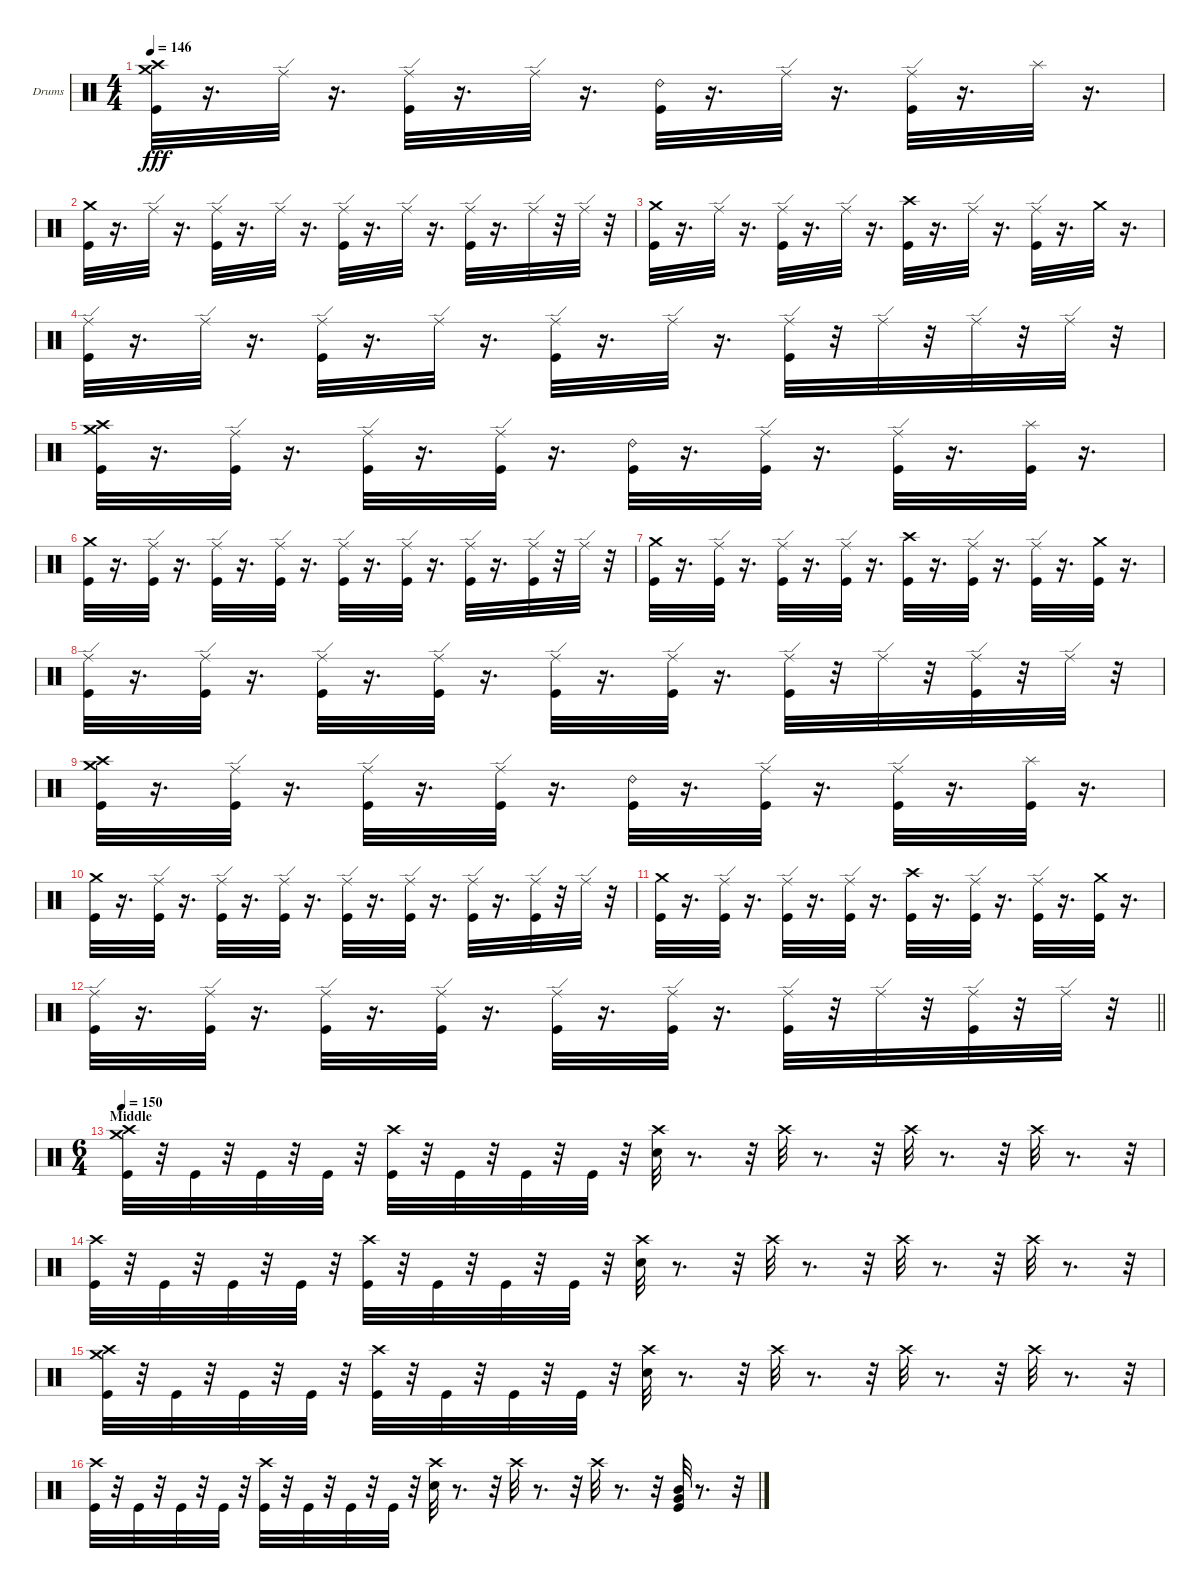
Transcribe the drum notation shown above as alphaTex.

\bracketExtendMode groupsimilarinstruments
\firstSystemTrackNameOrientation horizontal
\otherSystemsTrackNameOrientation horizontal
\track ("Dave McClain" "Drums") {mute instrument percussion}
\staff {score}
\articulation defaults
\ts (4 4)
\tempo 146
\clef neutral
\ks c
("Crash high (hit)" "Crash medium (hit)" "Kick (hit)").32{dy fff} r.16{d} "Ride (edge)".32 r.16{d} ("Kick (hit)" "Ride (edge)").32 r.16{d} "Ride (edge)".32 r.16{d} ("Ride (bell) 2" "Kick (hit)").32 r.16{d} "Ride (edge)".32 r.16{d} ("Kick (hit)" "Ride (edge)").32 r.16{d} "Splash (hit)".32 r.16{d} |
("Crash medium (hit)" "Kick (hit)").32 r.16{d} "Ride (edge)".32 r.16{d} ("Kick (hit)" "Ride (edge)").32 r.16{d} "Ride (edge)".32 r.16{d} ("Kick (hit)" "Ride (edge)").32 r.16{d} "Ride (edge)".32 r.16{d} ("Kick (hit)" "Ride (edge)").32 r.16{d} "Ride (edge)".32 r.32 "Ride (edge)".32 r.32 |
("Crash medium (hit)" "Kick (hit)").32 r.16{d} "Ride (edge)".32 r.16{d} ("Kick (hit)" "Ride (edge)").32 r.16{d} "Ride (edge)".32 r.16{d} ("Crash high (hit)" "Kick (hit)").32 r.16{d} "Ride (edge)".32 r.16{d} ("Kick (hit)" "Ride (edge)").32 r.16{d} "Crash medium (hit)".32 r.16{d} |
("Ride (edge)" "Kick (hit)").32 r.16{d} "Ride (edge)".32 r.16{d} ("Kick (hit)" "Ride (edge)").32 r.16{d} "Ride (edge)".32 r.16{d} ("Kick (hit)" "Ride (edge)").32 r.16{d} "Ride (edge)".32 r.16{d} ("Kick (hit)" "Ride (edge)").32 r.32 "Ride (edge)".32 r.32 "Ride (edge)".32 r.32 "Ride (edge)".32 r.32 |
("Crash high (hit)" "Crash medium (hit)" "Kick (hit)").32 r.16{d} ("Kick (hit)" "Ride (edge)").32 r.16{d} ("Kick (hit)" "Ride (edge)").32 r.16{d} ("Kick (hit)" "Ride (edge)").32 r.16{d} ("Ride (bell) 2" "Kick (hit)").32 r.16{d} ("Kick (hit)" "Ride (edge)").32 r.16{d} ("Kick (hit)" "Ride (edge)").32 r.16{d} ("Kick (hit)" "Splash (hit)").32 r.16{d} |
("Crash medium (hit)" "Kick (hit)").32 r.16{d} ("Kick (hit)" "Ride (edge)").32 r.16{d} ("Kick (hit)" "Ride (edge)").32 r.16{d} ("Kick (hit)" "Ride (edge)").32 r.16{d} ("Kick (hit)" "Ride (edge)").32 r.16{d} ("Kick (hit)" "Ride (edge)").32 r.16{d} ("Kick (hit)" "Ride (edge)").32 r.16{d} ("Kick (hit)" "Ride (edge)").32 r.32 "Ride (edge)".32 r.32 |
("Crash medium (hit)" "Kick (hit)").32 r.16{d} ("Kick (hit)" "Ride (edge)").32 r.16{d} ("Kick (hit)" "Ride (edge)").32 r.16{d} ("Kick (hit)" "Ride (edge)").32 r.16{d} ("Crash high (hit)" "Kick (hit)").32 r.16{d} ("Kick (hit)" "Ride (edge)").32 r.16{d} ("Kick (hit)" "Ride (edge)").32 r.16{d} ("Kick (hit)" "Crash medium (hit)").32 r.16{d} |
("Ride (edge)" "Kick (hit)").32 r.16{d} ("Kick (hit)" "Ride (edge)").32 r.16{d} ("Kick (hit)" "Ride (edge)").32 r.16{d} ("Kick (hit)" "Ride (edge)").32 r.16{d} ("Kick (hit)" "Ride (edge)").32 r.16{d} ("Kick (hit)" "Ride (edge)").32 r.16{d} ("Kick (hit)" "Ride (edge)").32 r.32 "Ride (edge)".32 r.32 ("Kick (hit)" "Ride (edge)").32 r.32 "Ride (edge)".32 r.32 |
("Crash high (hit)" "Crash medium (hit)" "Kick (hit)").32 r.16{d} ("Kick (hit)" "Ride (edge)").32 r.16{d} ("Kick (hit)" "Ride (edge)").32 r.16{d} ("Kick (hit)" "Ride (edge)").32 r.16{d} ("Ride (bell) 2" "Kick (hit)").32 r.16{d} ("Kick (hit)" "Ride (edge)").32 r.16{d} ("Kick (hit)" "Ride (edge)").32 r.16{d} ("Kick (hit)" "Splash (hit)").32 r.16{d} |
("Crash medium (hit)" "Kick (hit)").32 r.16{d} ("Kick (hit)" "Ride (edge)").32 r.16{d} ("Kick (hit)" "Ride (edge)").32 r.16{d} ("Kick (hit)" "Ride (edge)").32 r.16{d} ("Kick (hit)" "Ride (edge)").32 r.16{d} ("Kick (hit)" "Ride (edge)").32 r.16{d} ("Kick (hit)" "Ride (edge)").32 r.16{d} ("Kick (hit)" "Ride (edge)").32 r.32 "Ride (edge)".32 r.32 |
("Crash medium (hit)" "Kick (hit)").32 r.16{d} ("Kick (hit)" "Ride (edge)").32 r.16{d} ("Kick (hit)" "Ride (edge)").32 r.16{d} ("Kick (hit)" "Ride (edge)").32 r.16{d} ("Crash high (hit)" "Kick (hit)").32 r.16{d} ("Kick (hit)" "Ride (edge)").32 r.16{d} ("Kick (hit)" "Ride (edge)").32 r.16{d} ("Kick (hit)" "Crash medium (hit)").32 r.16{d} |
\barLineRight lightlight
("Ride (edge)" "Kick (hit)").32 r.16{d} ("Kick (hit)" "Ride (edge)").32 r.16{d} ("Kick (hit)" "Ride (edge)").32 r.16{d} ("Kick (hit)" "Ride (edge)").32 r.16{d} ("Kick (hit)" "Ride (edge)").32 r.16{d} ("Kick (hit)" "Ride (edge)").32 r.16{d} ("Kick (hit)" "Ride (edge)").32 r.32 "Ride (edge)".32 r.32 ("Kick (hit)" "Ride (edge)").32 r.32 "Ride (edge)".32 r.32 |
\ts (6 4)
\section ("" "Middle")
\tempo 150
("Crash high (hit)" "Crash medium (hit)" "Kick (hit)").32 r.32 "Kick (hit)".32 r.32 "Kick (hit)".32 r.32 "Kick (hit)".32 r.32 ("Crash high (hit)" "Kick (hit)").32 r.32 "Kick (hit)".32 r.32 "Kick (hit)".32 r.32 "Kick (hit)".32 r.32 ("Snare (hit) 2" "Crash high (hit)").32 r.8{d} r.32 "Crash high (hit)".32 r.8{d} r.32 "Crash high (hit)".32 r.8{d} r.32 "Crash high (hit)".32 r.8{d} r.32 |
("Kick (hit)" "Crash high (hit)").32 r.32 "Kick (hit)".32 r.32 "Kick (hit)".32 r.32 "Kick (hit)".32 r.32 ("Kick (hit)" "Crash high (hit)").32 r.32 "Kick (hit)".32 r.32 "Kick (hit)".32 r.32 "Kick (hit)".32 r.32 ("Snare (hit) 2" "Crash high (hit)").32 r.8{d} r.32 "Crash high (hit)".32 r.8{d} r.32 "Crash high (hit)".32 r.8{d} r.32 "Crash high (hit)".32 r.8{d} r.32 |
("Crash high (hit)" "Crash medium (hit)" "Kick (hit)").32 r.32 "Kick (hit)".32 r.32 "Kick (hit)".32 r.32 "Kick (hit)".32 r.32 ("Crash high (hit)" "Kick (hit)").32 r.32 "Kick (hit)".32 r.32 "Kick (hit)".32 r.32 "Kick (hit)".32 r.32 ("Snare (hit) 2" "Crash high (hit)").32 r.8{d} r.32 "Crash high (hit)".32 r.8{d} r.32 "Crash high (hit)".32 r.8{d} r.32 "Crash high (hit)".32 r.8{d} r.32 |
("Kick (hit)" "Crash high (hit)").32 r.32 "Kick (hit)".32 r.32 "Kick (hit)".32 r.32 "Kick (hit)".32 r.32 ("Kick (hit)" "Crash high (hit)").32 r.32 "Kick (hit)".32 r.32 "Kick (hit)".32 r.32 "Kick (hit)".32 r.32 ("Snare (hit) 2" "Crash high (hit)").32 r.8{d} r.32 "Crash high (hit)".32 r.8{d} r.32 "Crash high (hit)".32 r.8{d} r.32 ("Mid Tom (hit)" "Very Low Tom (hit)" "Kick (hit)").32 r.8{d} r.32
